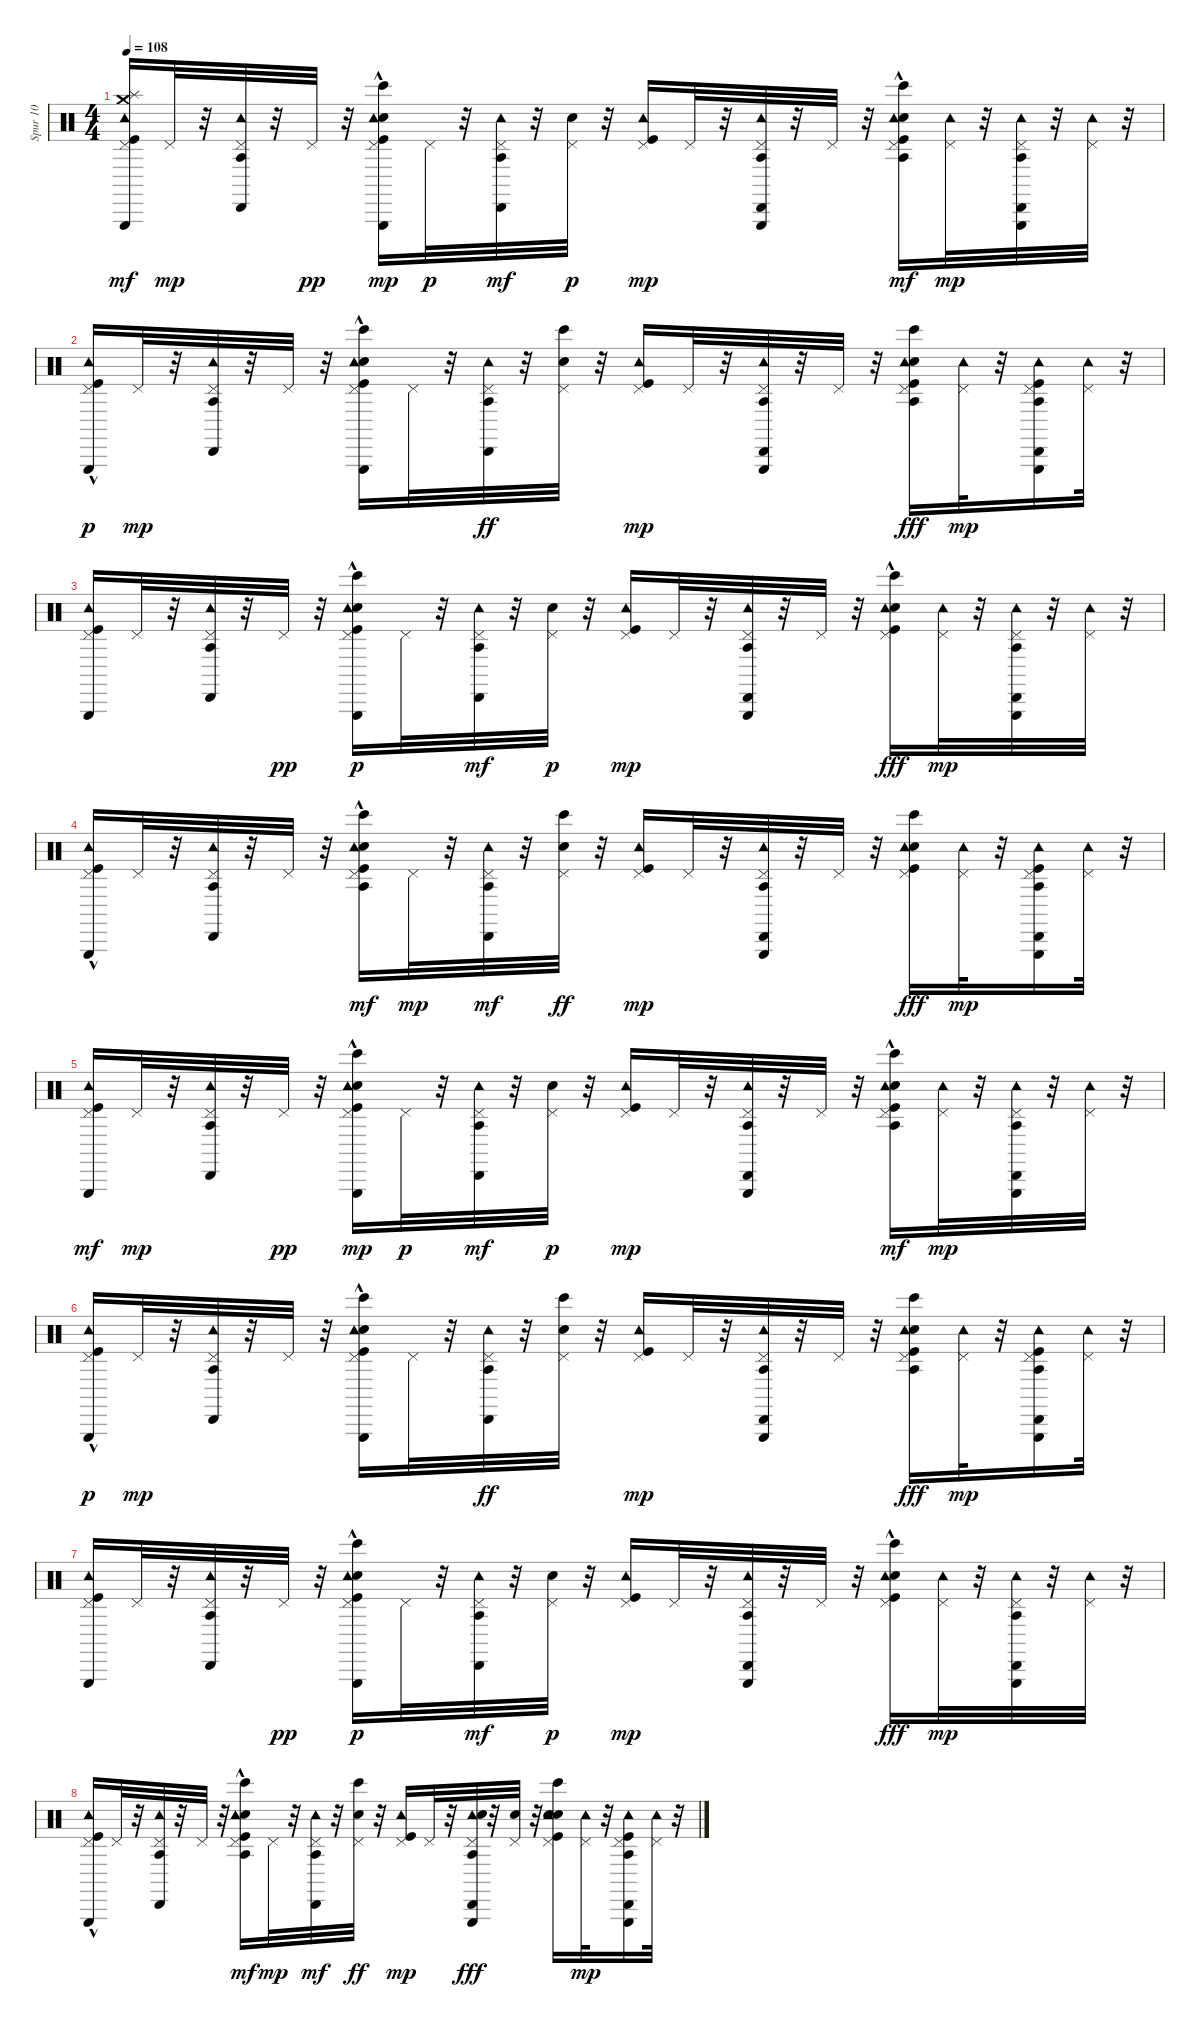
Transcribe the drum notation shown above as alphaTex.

\track ("Spur 10" "Spur 10") {instrument percussion}
\staff {score}
\articulation defaults
\ts (4 4)
\tempo 108
\clef neutral
\ks c
("Kick (hit)" "Tambourine (hit)" "Pedal Hi-Hat (hit)" "Triangle (hit)" "Splash (hit)" "Crash medium (hit)").16{dy mf} "Pedal Hi-Hat (hit)".32{dy mp} r.32 ("Tambourine (hit)" "Pedal Hi-Hat (hit)" "Cabasa (hit)" "Agogo tow (hit)").32 r.32 "Pedal Hi-Hat (hit)".32{dy pp} r.32 ("Kick (hit)"{hac} "Snare (hit) 2"{hac} "Tambourine (hit)" "Pedal Hi-Hat (hit)" "Bongo High (hit)" "Triangle (hit)").16{dy mp} "Pedal Hi-Hat (hit)".32{dy p} r.32 ("Tambourine (hit)" "Pedal Hi-Hat (hit)" "Cabasa (hit)" "Agogo tow (hit)").32{dy mf} r.32 ("Snare (hit) 2" "Pedal Hi-Hat (hit)").32{dy p} r.32 ("Kick (hit)" "Tambourine (hit)" "Pedal Hi-Hat (hit)").16{dy mp} "Pedal Hi-Hat (hit)".32 r.32 ("Tambourine (hit)" "Pedal Hi-Hat (hit)" "Cabasa (hit)" "Agogo tow (hit)" "Triangle (hit)").32 r.32 "Pedal Hi-Hat (hit)".32 r.32 ("Snare (hit) 2" "Kick (hit)"{hac} "Tambourine (hit)" "Pedal Hi-Hat (hit)" "Bongo High (hit)" "Agogo tow (hit)").16{dy mf} ("Tambourine (hit)" "Pedal Hi-Hat (hit)").32{dy mp} r.32 ("Tambourine (hit)" "Pedal Hi-Hat (hit)" "Cabasa (hit)" "Agogo tow (hit)" "Triangle (hit)").32 r.32 ("Tambourine (hit)" "Pedal Hi-Hat (hit)").32 r.32 |
("Kick (hit)"{hac} "Tambourine (hit)" "Pedal Hi-Hat (hit)" "Triangle (hit)").16{dy p} "Pedal Hi-Hat (hit)".32{dy mp} r.32 ("Tambourine (hit)" "Pedal Hi-Hat (hit)" "Cabasa (hit)" "Agogo tow (hit)").32 r.32 "Pedal Hi-Hat (hit)".32 r.32 ("Kick (hit)"{hac} "Snare (hit) 2" "Tambourine (hit)" "Pedal Hi-Hat (hit)" "Bongo High (hit)"{hac} "Triangle (hit)").16 "Pedal Hi-Hat (hit)".32 r.32 ("Tambourine (hit)" "Pedal Hi-Hat (hit)" "Cabasa (hit)" "Agogo tow (hit)").32{dy ff} r.32 ("Snare (hit) 2" "Pedal Hi-Hat (hit)" "Bongo High (hit)").32 r.32 ("Kick (hit)" "Tambourine (hit)" "Pedal Hi-Hat (hit)").16{dy mp} "Pedal Hi-Hat (hit)".32 r.32 ("Tambourine (hit)" "Pedal Hi-Hat (hit)" "Cabasa (hit)" "Agogo tow (hit)" "Triangle (hit)").32 r.32 "Pedal Hi-Hat (hit)".32 r.32 ("Snare (hit) 2" "Kick (hit)" "Tambourine (hit)" "Pedal Hi-Hat (hit)" "Bongo High (hit)" "Agogo tow (hit)").16{dy fff} ("Tambourine (hit)" "Pedal Hi-Hat (hit)").32{dy mp} r.32 ("Kick (hit)" "Tambourine (hit)" "Pedal Hi-Hat (hit)" "Cabasa (hit)" "Agogo tow (hit)" "Triangle (hit)").16 ("Tambourine (hit)" "Pedal Hi-Hat (hit)").32 r.32 |
("Kick (hit)" "Tambourine (hit)" "Pedal Hi-Hat (hit)" "Triangle (hit)").16 "Pedal Hi-Hat (hit)".32 r.32 ("Tambourine (hit)" "Pedal Hi-Hat (hit)" "Cabasa (hit)" "Agogo tow (hit)").32 r.32 "Pedal Hi-Hat (hit)".32{dy pp} r.32 ("Kick (hit)"{hac} "Snare (hit) 2"{hac} "Tambourine (hit)" "Pedal Hi-Hat (hit)" "Bongo High (hit)" "Triangle (hit)").16{dy p} "Pedal Hi-Hat (hit)".32 r.32 ("Tambourine (hit)" "Pedal Hi-Hat (hit)" "Cabasa (hit)" "Agogo tow (hit)").32{dy mf} r.32 ("Snare (hit) 2" "Pedal Hi-Hat (hit)").32{dy p} r.32 ("Kick (hit)" "Tambourine (hit)" "Pedal Hi-Hat (hit)").16{dy mp} "Pedal Hi-Hat (hit)".32 r.32 ("Tambourine (hit)" "Pedal Hi-Hat (hit)" "Cabasa (hit)" "Agogo tow (hit)" "Triangle (hit)").32 r.32 "Pedal Hi-Hat (hit)".32 r.32 ("Snare (hit) 2" "Kick (hit)"{hac} "Tambourine (hit)" "Pedal Hi-Hat (hit)" "Bongo High (hit)").16{dy fff} ("Tambourine (hit)" "Pedal Hi-Hat (hit)").32{dy mp} r.32 ("Tambourine (hit)" "Pedal Hi-Hat (hit)" "Cabasa (hit)" "Agogo tow (hit)" "Triangle (hit)").32 r.32 ("Tambourine (hit)" "Pedal Hi-Hat (hit)").32 r.32 |
("Kick (hit)"{hac} "Tambourine (hit)" "Pedal Hi-Hat (hit)" "Triangle (hit)").16 "Pedal Hi-Hat (hit)".32 r.32 ("Tambourine (hit)" "Pedal Hi-Hat (hit)" "Cabasa (hit)" "Agogo tow (hit)").32 r.32 "Pedal Hi-Hat (hit)".32 r.32 ("Kick (hit)"{hac} "Snare (hit) 2" "Tambourine (hit)" "Pedal Hi-Hat (hit)" "Bongo High (hit)"{hac} "Agogo tow (hit)").16{dy mf} "Pedal Hi-Hat (hit)".32{dy mp} r.32 ("Tambourine (hit)" "Pedal Hi-Hat (hit)" "Cabasa (hit)" "Agogo tow (hit)").32{dy mf} r.32 ("Snare (hit) 2" "Pedal Hi-Hat (hit)" "Bongo High (hit)").32{dy ff} r.32 ("Kick (hit)" "Tambourine (hit)" "Pedal Hi-Hat (hit)").16{dy mp} "Pedal Hi-Hat (hit)".32 r.32 ("Tambourine (hit)" "Pedal Hi-Hat (hit)" "Cabasa (hit)" "Agogo tow (hit)" "Triangle (hit)").32 r.32 "Pedal Hi-Hat (hit)".32 r.32 ("Snare (hit) 2" "Kick (hit)" "Tambourine (hit)" "Pedal Hi-Hat (hit)" "Bongo High (hit)").16{dy fff} ("Tambourine (hit)" "Pedal Hi-Hat (hit)").32{dy mp} r.32 ("Kick (hit)" "Tambourine (hit)" "Pedal Hi-Hat (hit)" "Cabasa (hit)" "Agogo tow (hit)" "Triangle (hit)").16 ("Tambourine (hit)" "Pedal Hi-Hat (hit)").32 r.32 |
("Kick (hit)" "Tambourine (hit)" "Pedal Hi-Hat (hit)" "Triangle (hit)").16{dy mf} "Pedal Hi-Hat (hit)".32{dy mp} r.32 ("Tambourine (hit)" "Pedal Hi-Hat (hit)" "Cabasa (hit)" "Agogo tow (hit)").32 r.32 "Pedal Hi-Hat (hit)".32{dy pp} r.32 ("Kick (hit)"{hac} "Snare (hit) 2"{hac} "Tambourine (hit)" "Pedal Hi-Hat (hit)" "Bongo High (hit)" "Triangle (hit)").16{dy mp} "Pedal Hi-Hat (hit)".32{dy p} r.32 ("Tambourine (hit)" "Pedal Hi-Hat (hit)" "Cabasa (hit)" "Agogo tow (hit)").32{dy mf} r.32 ("Snare (hit) 2" "Pedal Hi-Hat (hit)").32{dy p} r.32 ("Kick (hit)" "Tambourine (hit)" "Pedal Hi-Hat (hit)").16{dy mp} "Pedal Hi-Hat (hit)".32 r.32 ("Tambourine (hit)" "Pedal Hi-Hat (hit)" "Cabasa (hit)" "Agogo tow (hit)" "Triangle (hit)").32 r.32 "Pedal Hi-Hat (hit)".32 r.32 ("Snare (hit) 2" "Kick (hit)"{hac} "Tambourine (hit)" "Pedal Hi-Hat (hit)" "Bongo High (hit)" "Agogo tow (hit)").16{dy mf} ("Tambourine (hit)" "Pedal Hi-Hat (hit)").32{dy mp} r.32 ("Tambourine (hit)" "Pedal Hi-Hat (hit)" "Cabasa (hit)" "Agogo tow (hit)" "Triangle (hit)").32 r.32 ("Tambourine (hit)" "Pedal Hi-Hat (hit)").32 r.32 |
("Kick (hit)"{hac} "Tambourine (hit)" "Pedal Hi-Hat (hit)" "Triangle (hit)").16{dy p} "Pedal Hi-Hat (hit)".32{dy mp} r.32 ("Tambourine (hit)" "Pedal Hi-Hat (hit)" "Cabasa (hit)" "Agogo tow (hit)").32 r.32 "Pedal Hi-Hat (hit)".32 r.32 ("Kick (hit)"{hac} "Snare (hit) 2" "Tambourine (hit)" "Pedal Hi-Hat (hit)" "Bongo High (hit)"{hac} "Triangle (hit)").16 "Pedal Hi-Hat (hit)".32 r.32 ("Tambourine (hit)" "Pedal Hi-Hat (hit)" "Cabasa (hit)" "Agogo tow (hit)").32{dy ff} r.32 ("Snare (hit) 2" "Pedal Hi-Hat (hit)" "Bongo High (hit)").32 r.32 ("Kick (hit)" "Tambourine (hit)" "Pedal Hi-Hat (hit)").16{dy mp} "Pedal Hi-Hat (hit)".32 r.32 ("Tambourine (hit)" "Pedal Hi-Hat (hit)" "Cabasa (hit)" "Agogo tow (hit)" "Triangle (hit)").32 r.32 "Pedal Hi-Hat (hit)".32 r.32 ("Snare (hit) 2" "Kick (hit)" "Tambourine (hit)" "Pedal Hi-Hat (hit)" "Bongo High (hit)" "Agogo tow (hit)").16{dy fff} ("Tambourine (hit)" "Pedal Hi-Hat (hit)").32{dy mp} r.32 ("Kick (hit)" "Tambourine (hit)" "Pedal Hi-Hat (hit)" "Cabasa (hit)" "Agogo tow (hit)" "Triangle (hit)").16 ("Tambourine (hit)" "Pedal Hi-Hat (hit)").32 r.32 |
("Kick (hit)" "Tambourine (hit)" "Pedal Hi-Hat (hit)" "Triangle (hit)").16 "Pedal Hi-Hat (hit)".32 r.32 ("Tambourine (hit)" "Pedal Hi-Hat (hit)" "Cabasa (hit)" "Agogo tow (hit)").32 r.32 "Pedal Hi-Hat (hit)".32{dy pp} r.32 ("Kick (hit)"{hac} "Snare (hit) 2"{hac} "Tambourine (hit)" "Pedal Hi-Hat (hit)" "Bongo High (hit)" "Triangle (hit)").16{dy p} "Pedal Hi-Hat (hit)".32 r.32 ("Tambourine (hit)" "Pedal Hi-Hat (hit)" "Cabasa (hit)" "Agogo tow (hit)").32{dy mf} r.32 ("Snare (hit) 2" "Pedal Hi-Hat (hit)").32{dy p} r.32 ("Kick (hit)" "Tambourine (hit)" "Pedal Hi-Hat (hit)").16{dy mp} "Pedal Hi-Hat (hit)".32 r.32 ("Tambourine (hit)" "Pedal Hi-Hat (hit)" "Cabasa (hit)" "Agogo tow (hit)" "Triangle (hit)").32 r.32 "Pedal Hi-Hat (hit)".32 r.32 ("Snare (hit) 2" "Kick (hit)"{hac} "Tambourine (hit)" "Pedal Hi-Hat (hit)" "Bongo High (hit)").16{dy fff} ("Tambourine (hit)" "Pedal Hi-Hat (hit)").32{dy mp} r.32 ("Tambourine (hit)" "Pedal Hi-Hat (hit)" "Cabasa (hit)" "Agogo tow (hit)" "Triangle (hit)").32 r.32 ("Tambourine (hit)" "Pedal Hi-Hat (hit)").32 r.32 |
("Kick (hit)"{hac} "Tambourine (hit)" "Pedal Hi-Hat (hit)" "Triangle (hit)").16 "Pedal Hi-Hat (hit)".32 r.32 ("Tambourine (hit)" "Pedal Hi-Hat (hit)" "Cabasa (hit)" "Agogo tow (hit)").32 r.32 "Pedal Hi-Hat (hit)".32 r.32 ("Kick (hit)"{hac} "Snare (hit) 2" "Tambourine (hit)" "Pedal Hi-Hat (hit)" "Bongo High (hit)"{hac} "Agogo tow (hit)").16{dy mf} "Pedal Hi-Hat (hit)".32{dy mp} r.32 ("Tambourine (hit)" "Pedal Hi-Hat (hit)" "Cabasa (hit)" "Agogo tow (hit)").32{dy mf} r.32 ("Snare (hit) 2" "Pedal Hi-Hat (hit)" "Bongo High (hit)").32{dy ff} r.32 ("Kick (hit)" "Tambourine (hit)" "Pedal Hi-Hat (hit)").16{dy mp} "Pedal Hi-Hat (hit)".32 r.32 ("Tambourine (hit)" "Pedal Hi-Hat (hit)" "Cabasa (hit)" "Agogo tow (hit)" "Triangle (hit)" "Snare (hit) 2").32{dy fff} r.32 ("Pedal Hi-Hat (hit)" "Snare (hit) 2").32 r.32 ("Snare (hit) 2" "Kick (hit)" "Tambourine (hit)" "Pedal Hi-Hat (hit)" "Bongo High (hit)" "Snare (hit) 2").16 ("Tambourine (hit)" "Pedal Hi-Hat (hit)").32{dy mp} r.32 ("Kick (hit)" "Tambourine (hit)" "Pedal Hi-Hat (hit)" "Cabasa (hit)" "Agogo tow (hit)" "Triangle (hit)").16 ("Tambourine (hit)" "Pedal Hi-Hat (hit)").32 r.32
